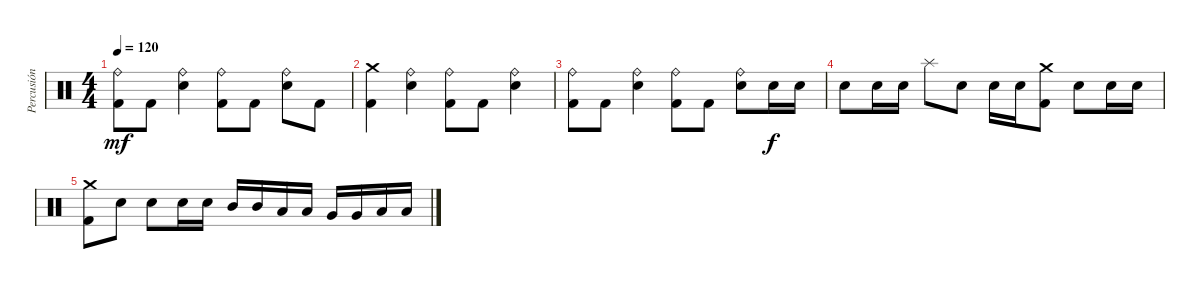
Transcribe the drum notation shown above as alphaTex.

\track ("Percusión" "Percusión") {instrument percussion}
\staff {score}
\articulation defaults
\ts (4 4)
\tempo 120
\clef neutral
\ks c
("Ride (bell)" "Kick (hit) 2").8{dy mf} "Kick (hit) 2".8 ("Ride (bell)" "Electric Snare (hit)").4 ("Ride (bell)" "Kick (hit) 2").8 "Kick (hit) 2".8 ("Ride (bell)" "Electric Snare (hit)").8 "Kick (hit) 2".8 |
("Crash medium (hit)" "Kick (hit) 2").4 ("Ride (bell)" "Electric Snare (hit)").4 ("Ride (bell)" "Kick (hit) 2").8 "Kick (hit) 2".8 ("Ride (bell)" "Electric Snare (hit)").4 |
("Ride (bell)" "Kick (hit) 2").8 "Kick (hit) 2".8 ("Ride (bell)" "Electric Snare (hit)").4 ("Ride (bell)" "Kick (hit) 2").8 "Kick (hit) 2".8 ("Ride (bell)" "Electric Snare (hit)").8 "Electric Snare (hit)".16{dy f} "Electric Snare (hit)".16 |
"Electric Snare (hit)".8 "Electric Snare (hit)".16 "Electric Snare (hit)".16 "Splash (hit)".8 "Electric Snare (hit)".8 "Electric Snare (hit)".16 "Electric Snare (hit)".16 ("Crash medium (hit)" "Kick (hit) 2").8 "Electric Snare (hit)".8 "Electric Snare (hit)".16 "Electric Snare (hit)".16 |
("Crash medium (hit)" "Kick (hit) 2").8 "Electric Snare (hit)".8 "Electric Snare (hit)".8 "Electric Snare (hit)".16 "Electric Snare (hit)".16 "Mid Tom (hit)".16 "Mid Tom (hit)".16 "Low Tom (hit)".16 "Low Tom (hit)".16 "Very Low Tom (hit)".16 "Very Low Tom (hit)".16 "Low Floor Tom (hit)".16 "Low Floor Tom (hit)".16
